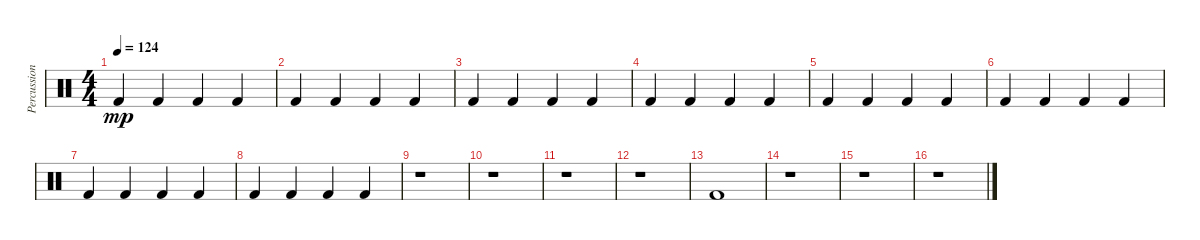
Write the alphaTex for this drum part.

\track ("Percussion" "Percussion") {instrument percussion}
\staff {score}
\articulation defaults
\ts (4 4)
\tempo 124
\clef neutral
\ks c "Kick (hit) 2".4{dy mp} "Kick (hit) 2".4 "Kick (hit) 2".4 "Kick (hit) 2".4
|
"Kick (hit) 2".4 "Kick (hit) 2".4 "Kick (hit) 2".4 "Kick (hit) 2".4 |
"Kick (hit) 2".4 "Kick (hit) 2".4 "Kick (hit) 2".4 "Kick (hit) 2".4 |
"Kick (hit) 2".4 "Kick (hit) 2".4 "Kick (hit) 2".4 "Kick (hit) 2".4 |
"Kick (hit) 2".4 "Kick (hit) 2".4 "Kick (hit) 2".4 "Kick (hit) 2".4 |
"Kick (hit) 2".4 "Kick (hit) 2".4 "Kick (hit) 2".4 "Kick (hit) 2".4 |
"Kick (hit) 2".4 "Kick (hit) 2".4 "Kick (hit) 2".4 "Kick (hit) 2".4 |
"Kick (hit) 2".4 "Kick (hit) 2".4 "Kick (hit) 2".4 "Kick (hit) 2".4 |
r.1 |
r.1 |
r.1 |
r.1 |
"Kick (hit) 2".1 |
r.1 |
r.1 |
r.1
